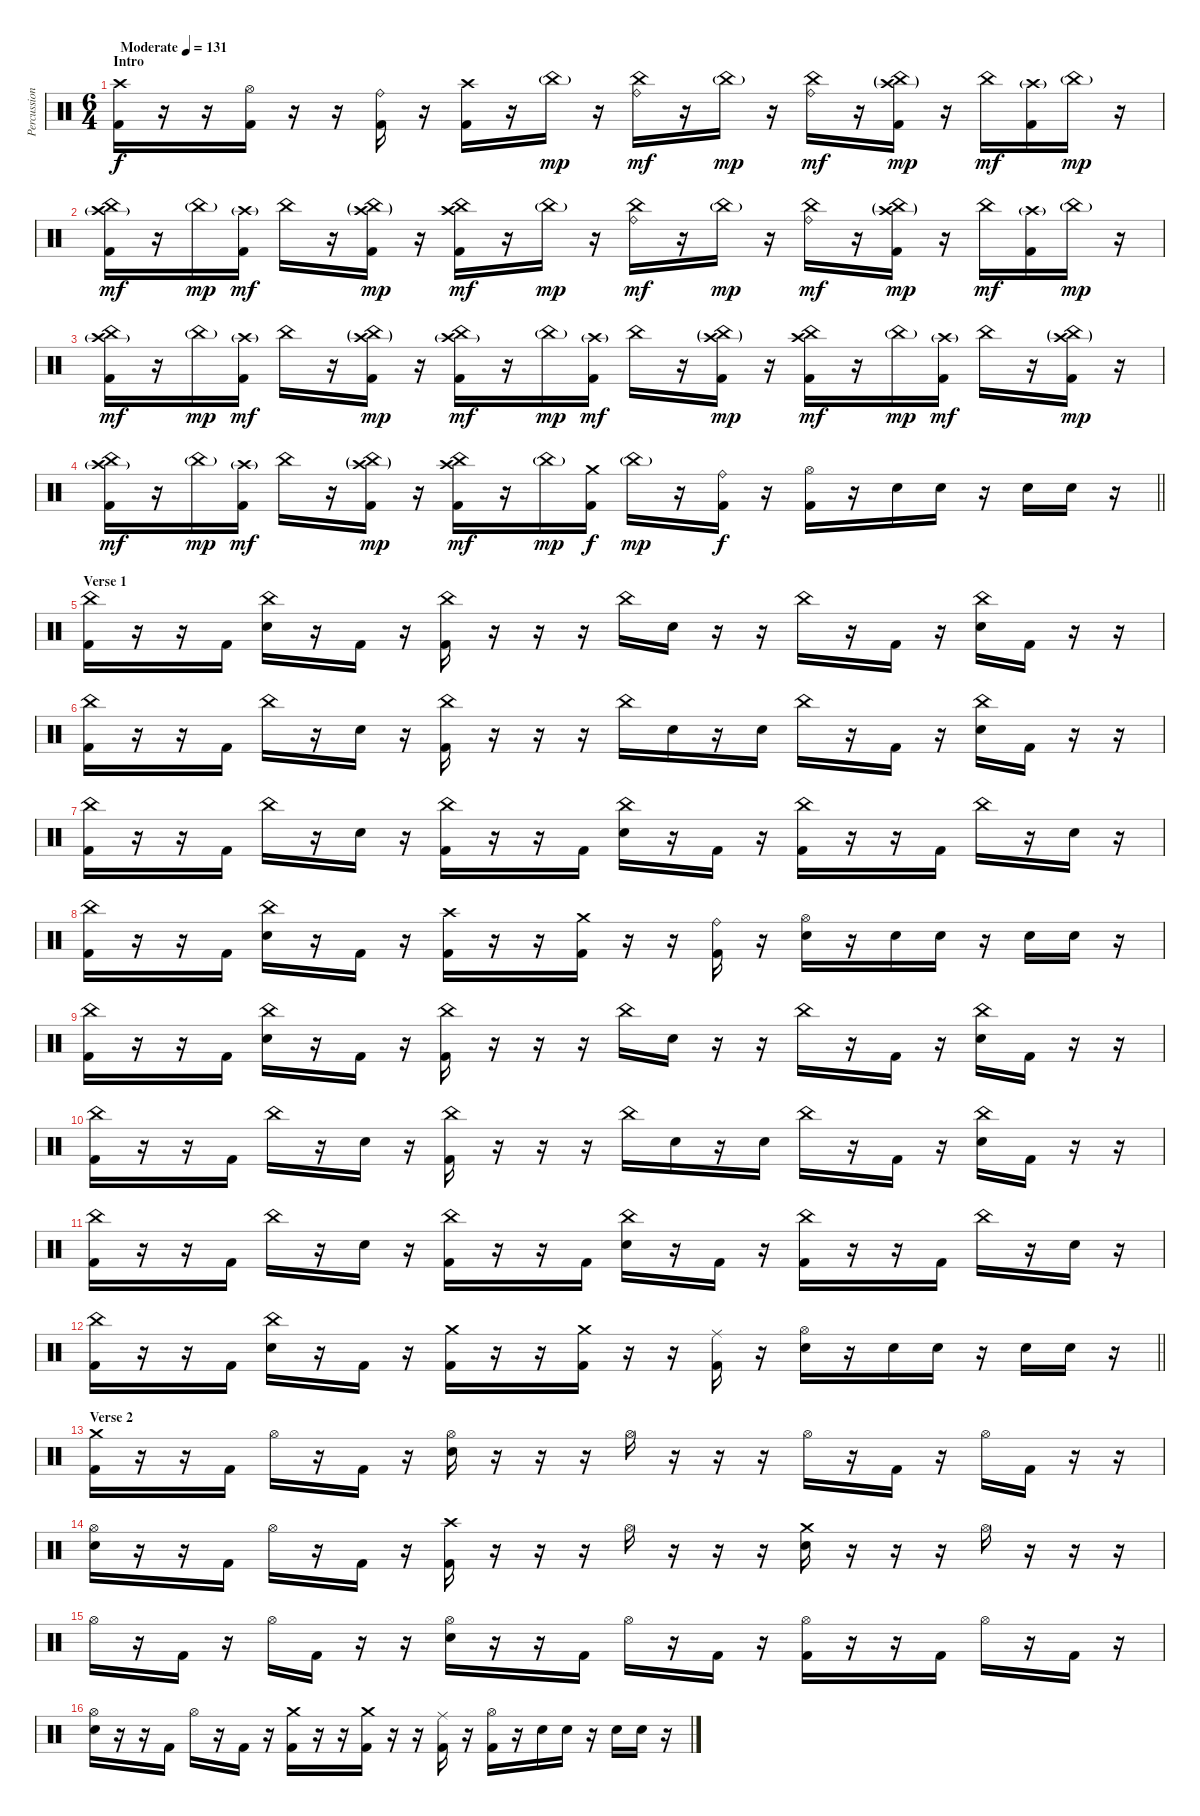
\track ("Percussion" "Percussion") {instrument percussion}
\staff {score}
\articulation defaults
\ts (6 4)
\section ("" "Intro")
\tempo (131 "Moderate")
\clef neutral
\ks c
("Crash high (hit)" "Kick (hit) 2").16{dy f} r.16 r.16 ("Hi-Hat (open)" "Kick (hit) 2").16 r.16 r.16 ("Ride (bell)" "Kick (hit) 2").16 r.16 ("Crash high (hit)" "Kick (hit) 2").16 r.16 "China (hit)"{g}.16{dy mp} r.16 ("Ride (bell)" "China (hit)").16{dy mf} r.16 "China (hit)"{g}.16{dy mp} r.16 ("Ride (bell)" "China (hit)").16{dy mf} r.16 ("Crash high (hit)"{g} "China (hit)"{g} "Kick (hit) 2").16{dy mp} r.16 "China (hit)".16{dy mf} ("Crash high (hit)"{g} "Kick (hit) 2").16 "China (hit)"{g}.16{dy mp} r.16 |
("Crash high (hit)"{g} "China (hit)" "Kick (hit) 2").16{dy mf} r.16 "China (hit)"{g}.16{dy mp} ("Crash high (hit)"{g} "Kick (hit) 2").16{dy mf} "China (hit)".16 r.16 ("Crash high (hit)"{g} "China (hit)"{g} "Kick (hit) 2").16{dy mp} r.16 ("Crash high (hit)" "China (hit)" "Kick (hit) 2").16{dy mf} r.16 "China (hit)"{g}.16{dy mp} r.16 ("Ride (bell)" "China (hit)").16{dy mf} r.16 "China (hit)"{g}.16{dy mp} r.16 ("Ride (bell)" "China (hit)").16{dy mf} r.16 ("Crash high (hit)"{g} "China (hit)"{g} "Kick (hit) 2").16{dy mp} r.16 "China (hit)".16{dy mf} ("Crash high (hit)"{g} "Kick (hit) 2").16 "China (hit)"{g}.16{dy mp} r.16 |
("Crash high (hit)"{g} "China (hit)" "Kick (hit) 2").16{dy mf} r.16 "China (hit)"{g}.16{dy mp} ("Crash high (hit)"{g} "Kick (hit) 2").16{dy mf} "China (hit)".16 r.16 ("Crash high (hit)"{g} "China (hit)"{g} "Kick (hit) 2").16{dy mp} r.16 ("Crash high (hit)"{g} "China (hit)" "Kick (hit) 2").16{dy mf} r.16 "China (hit)"{g}.16{dy mp} ("Crash high (hit)"{g} "Kick (hit) 2").16{dy mf} "China (hit)".16 r.16 ("Crash high (hit)"{g} "China (hit)"{g} "Kick (hit) 2").16{dy mp} r.16 ("Crash high (hit)" "China (hit)" "Kick (hit) 2").16{dy mf} r.16 "China (hit)"{g}.16{dy mp} ("Crash high (hit)"{g} "Kick (hit) 2").16{dy mf} "China (hit)".16 r.16 ("Crash high (hit)"{g} "China (hit)"{g} "Kick (hit) 2").16{dy mp} r.16 |
\barLineRight lightlight
("Crash high (hit)"{g} "China (hit)" "Kick (hit) 2").16{dy mf} r.16 "China (hit)"{g}.16{dy mp} ("Crash high (hit)"{g} "Kick (hit) 2").16{dy mf} "China (hit)".16 r.16 ("Crash high (hit)"{g} "China (hit)"{g} "Kick (hit) 2").16{dy mp} r.16 ("Crash high (hit)" "China (hit)" "Kick (hit) 2").16{dy mf} r.16 "China (hit)"{g}.16{dy mp} ("Crash medium (hit)" "Kick (hit) 2").16{dy f} "China (hit)"{g}.16{dy mp} r.16 ("Ride (bell)" "Kick (hit) 2").16{dy f} r.16 ("Hi-Hat (open)" "Kick (hit) 2").16 r.16 "Snare (hit) 2".16 "Snare (hit) 2".16 r.16 "Snare (hit) 2".16 "Snare (hit) 2".16 r.16 |
\section ("" "Verse 1")
("China (hit)" "Kick (hit) 2").16 r.16 r.16 "Kick (hit) 2".16 ("China (hit)" "Snare (hit) 2").16 r.16 "Kick (hit) 2".16 r.16 ("China (hit)" "Kick (hit) 2").16 r.16 r.16 r.16 "China (hit)".16 "Snare (hit) 2".16 r.16 r.16 "China (hit)".16 r.16 "Kick (hit) 2".16 r.16 ("China (hit)" "Snare (hit) 2").16 "Kick (hit) 2".16 r.16 r.16 |
("China (hit)" "Kick (hit) 2").16 r.16 r.16 "Kick (hit) 2".16 "China (hit)".16 r.16 "Snare (hit) 2".16 r.16 ("China (hit)" "Kick (hit) 2").16 r.16 r.16 r.16 "China (hit)".16 "Snare (hit) 2".16 r.16 "Snare (hit) 2".16 "China (hit)".16 r.16 "Kick (hit) 2".16 r.16 ("China (hit)" "Snare (hit) 2").16 "Kick (hit) 2".16 r.16 r.16 |
("China (hit)" "Kick (hit) 2").16 r.16 r.16 "Kick (hit) 2".16 "China (hit)".16 r.16 "Snare (hit) 2".16 r.16 ("China (hit)" "Kick (hit) 2").16 r.16 r.16 "Kick (hit) 2".16 ("China (hit)" "Snare (hit) 2").16 r.16 "Kick (hit) 2".16 r.16 ("China (hit)" "Kick (hit) 2").16 r.16 r.16 "Kick (hit) 2".16 "China (hit)".16 r.16 "Snare (hit) 2".16 r.16 |
("China (hit)" "Kick (hit) 2").16 r.16 r.16 "Kick (hit) 2".16 ("China (hit)" "Snare (hit) 2").16 r.16 "Kick (hit) 2".16 r.16 ("Crash high (hit)" "Kick (hit) 2").16 r.16 r.16 ("Crash medium (hit)" "Kick (hit) 2").16 r.16 r.16 ("Ride (bell)" "Kick (hit) 2").16 r.16 ("Hi-Hat (open)" "Snare (hit) 2").16 r.16 "Snare (hit) 2".16 "Snare (hit) 2".16 r.16 "Snare (hit) 2".16 "Snare (hit) 2".16 r.16 |
("China (hit)" "Kick (hit) 2").16 r.16 r.16 "Kick (hit) 2".16 ("China (hit)" "Snare (hit) 2").16 r.16 "Kick (hit) 2".16 r.16 ("China (hit)" "Kick (hit) 2").16 r.16 r.16 r.16 "China (hit)".16 "Snare (hit) 2".16 r.16 r.16 "China (hit)".16 r.16 "Kick (hit) 2".16 r.16 ("China (hit)" "Snare (hit) 2").16 "Kick (hit) 2".16 r.16 r.16 |
("China (hit)" "Kick (hit) 2").16 r.16 r.16 "Kick (hit) 2".16 "China (hit)".16 r.16 "Snare (hit) 2".16 r.16 ("China (hit)" "Kick (hit) 2").16 r.16 r.16 r.16 "China (hit)".16 "Snare (hit) 2".16 r.16 "Snare (hit) 2".16 "China (hit)".16 r.16 "Kick (hit) 2".16 r.16 ("China (hit)" "Snare (hit) 2").16 "Kick (hit) 2".16 r.16 r.16 |
("China (hit)" "Kick (hit) 2").16 r.16 r.16 "Kick (hit) 2".16 "China (hit)".16 r.16 "Snare (hit) 2".16 r.16 ("China (hit)" "Kick (hit) 2").16 r.16 r.16 "Kick (hit) 2".16 ("China (hit)" "Snare (hit) 2").16 r.16 "Kick (hit) 2".16 r.16 ("China (hit)" "Kick (hit) 2").16 r.16 r.16 "Kick (hit) 2".16 "China (hit)".16 r.16 "Snare (hit) 2".16 r.16 |
\barLineRight lightlight
("China (hit)" "Kick (hit) 2").16 r.16 r.16 "Kick (hit) 2".16 ("China (hit)" "Snare (hit) 2").16 r.16 "Kick (hit) 2".16 r.16 ("Crash medium (hit)" "Kick (hit) 2").16 r.16 r.16 ("Crash medium (hit)" "Kick (hit) 2").16 r.16 r.16 ("Ride (middle)" "Kick (hit) 2").16 r.16 ("Hi-Hat (open)" "Snare (hit) 2").16 r.16 "Snare (hit) 2".16 "Snare (hit) 2".16 r.16 "Snare (hit) 2".16 "Snare (hit) 2".16 r.16 |
\section ("" "Verse 2")
("Crash medium (hit)" "Kick (hit) 2").16 r.16 r.16 "Kick (hit) 2".16 "Hi-Hat (open)".16 r.16 "Kick (hit) 2".16 r.16 ("Hi-Hat (open)" "Snare (hit) 2").16 r.16 r.16 r.16 "Hi-Hat (open)".16 r.16 r.16 r.16 "Hi-Hat (open)".16 r.16 "Kick (hit) 2".16 r.16 "Hi-Hat (open)".16 "Kick (hit) 2".16 r.16 r.16 |
("Hi-Hat (open)" "Snare (hit) 2").16 r.16 r.16 "Kick (hit) 2".16 "Hi-Hat (open)".16 r.16 "Kick (hit) 2".16 r.16 ("Crash high (hit)" "Kick (hit) 2").16 r.16 r.16 r.16 "Hi-Hat (open)".16 r.16 r.16 r.16 ("Crash medium (hit)" "Snare (hit) 2").16 r.16 r.16 r.16 "Hi-Hat (open)".16 r.16 r.16 r.16 |
"Hi-Hat (open)".16 r.16 "Kick (hit) 2".16 r.16 "Hi-Hat (open)".16 "Kick (hit) 2".16 r.16 r.16 ("Hi-Hat (open)" "Snare (hit) 2").16 r.16 r.16 "Kick (hit) 2".16 "Hi-Hat (open)".16 r.16 "Kick (hit) 2".16 r.16 ("Hi-Hat (open)" "Kick (hit) 2").16 r.16 r.16 "Kick (hit) 2".16 "Hi-Hat (open)".16 r.16 "Kick (hit) 2".16 r.16 |
("Hi-Hat (open)" "Snare (hit) 2").16 r.16 r.16 "Kick (hit) 2".16 "Hi-Hat (open)".16 r.16 "Kick (hit) 2".16 r.16 ("Crash medium (hit)" "Kick (hit) 2").16 r.16 r.16 ("Crash medium (hit)" "Kick (hit) 2").16 r.16 r.16 ("Ride (middle)" "Kick (hit) 2").16 r.16 ("Hi-Hat (open)" "Kick (hit) 2").16 r.16 "Snare (hit) 2".16 "Snare (hit) 2".16 r.16 "Snare (hit) 2".16 "Snare (hit) 2".16 r.16
